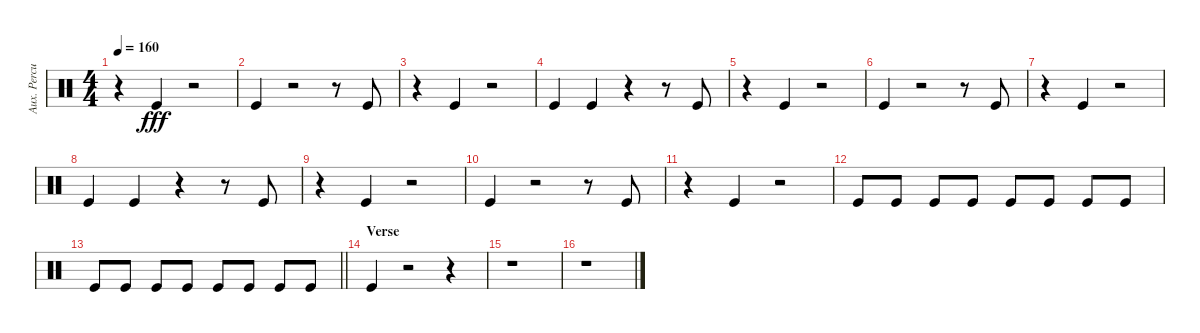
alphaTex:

\track ("Aux. Percussion" "Aux. Percu") {instrument percussion}
\staff {score}
\articulation defaults
\ts (4 4)
\tempo 160
\clef neutral
\ks c
r.4{dy fff} "Kick (hit)".4 r.2 |
"Kick (hit)".4 r.2 r.8 "Kick (hit)".8 |
r.4 "Kick (hit)".4 r.2 |
"Kick (hit)".4 "Kick (hit)".4 r.4 r.8 "Kick (hit)".8 |
r.4 "Kick (hit)".4 r.2 |
"Kick (hit)".4 r.2 r.8 "Kick (hit)".8 |
r.4 "Kick (hit)".4 r.2 |
"Kick (hit)".4 "Kick (hit)".4 r.4 r.8 "Kick (hit)".8 |
r.4 "Kick (hit)".4 r.2 |
"Kick (hit)".4 r.2 r.8 "Kick (hit)".8 |
r.4 "Kick (hit)".4 r.2 |
"Kick (hit)".8 "Kick (hit)".8 "Kick (hit)".8 "Kick (hit)".8 "Kick (hit)".8 "Kick (hit)".8 "Kick (hit)".8 "Kick (hit)".8 |
\barLineRight lightlight "Kick (hit)".8 "Kick (hit)".8 "Kick (hit)".8 "Kick (hit)".8 "Kick (hit)".8 "Kick (hit)".8 "Kick (hit)".8 "Kick (hit)".8
|
\section ("" "Verse")
"Kick (hit)".4 r.2 r.4 |
r.1 |
r.1
